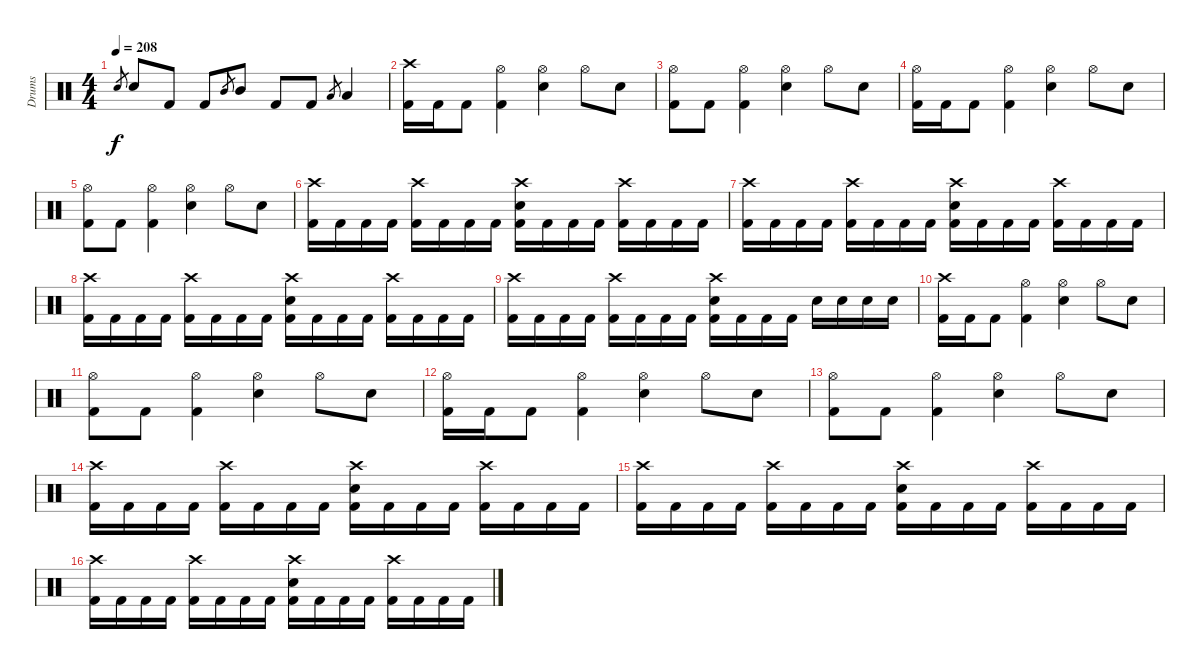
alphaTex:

\track ("Drums" "Drums") {instrument percussion}
\staff {score}
\articulation defaults
\ts (4 4)
\tempo 208
\clef neutral
\ks c "Snare (hit) 2".8{gr dy f} "Snare (hit) 2".8 "Kick (hit) 2".8 "Kick (hit) 2".8 "Mid Tom (hit)".8{gr} "Mid Tom (hit)".8 "Kick (hit) 2".8 "Kick (hit) 2".8 "Low Tom (hit)".8{gr} "Low Tom (hit)".4
|
("Crash high (hit)" "Kick (hit) 2").16 "Kick (hit) 2".16 "Kick (hit) 2".8 ("Hi-Hat (open)" "Kick (hit) 2").4 ("Hi-Hat (open)" "Snare (hit) 2").4 "Hi-Hat (open)".8 "Snare (hit) 2".8 |
("Hi-Hat (open)" "Kick (hit) 2").8 "Kick (hit) 2".8 ("Hi-Hat (open)" "Kick (hit) 2").4 ("Hi-Hat (open)" "Snare (hit) 2").4 "Hi-Hat (open)".8 "Snare (hit) 2".8 |
("Hi-Hat (open)" "Kick (hit) 2").16 "Kick (hit) 2".16 "Kick (hit) 2".8 ("Hi-Hat (open)" "Kick (hit) 2").4 ("Hi-Hat (open)" "Snare (hit) 2").4 "Hi-Hat (open)".8 "Snare (hit) 2".8 |
("Hi-Hat (open)" "Kick (hit) 2").8 "Kick (hit) 2".8 ("Hi-Hat (open)" "Kick (hit) 2").4 ("Hi-Hat (open)" "Snare (hit) 2").4 "Hi-Hat (open)".8 "Snare (hit) 2".8 |
("Crash high (hit)" "Kick (hit) 2").16 "Kick (hit) 2".16 "Kick (hit) 2".16 "Kick (hit) 2".16 ("Crash high (hit)" "Kick (hit) 2").16 "Kick (hit) 2".16 "Kick (hit) 2".16 "Kick (hit) 2".16 ("Crash high (hit)" "Snare (hit) 2" "Kick (hit) 2").16 "Kick (hit) 2".16 "Kick (hit) 2".16 "Kick (hit) 2".16 ("Crash high (hit)" "Kick (hit) 2").16 "Kick (hit) 2".16 "Kick (hit) 2".16 "Kick (hit) 2".16 |
("Crash high (hit)" "Kick (hit) 2").16 "Kick (hit) 2".16 "Kick (hit) 2".16 "Kick (hit) 2".16 ("Crash high (hit)" "Kick (hit) 2").16 "Kick (hit) 2".16 "Kick (hit) 2".16 "Kick (hit) 2".16 ("Crash high (hit)" "Snare (hit) 2" "Kick (hit) 2").16 "Kick (hit) 2".16 "Kick (hit) 2".16 "Kick (hit) 2".16 ("Crash high (hit)" "Kick (hit) 2").16 "Kick (hit) 2".16 "Kick (hit) 2".16 "Kick (hit) 2".16 |
("Crash high (hit)" "Kick (hit) 2").16 "Kick (hit) 2".16 "Kick (hit) 2".16 "Kick (hit) 2".16 ("Crash high (hit)" "Kick (hit) 2").16 "Kick (hit) 2".16 "Kick (hit) 2".16 "Kick (hit) 2".16 ("Crash high (hit)" "Snare (hit) 2" "Kick (hit) 2").16 "Kick (hit) 2".16 "Kick (hit) 2".16 "Kick (hit) 2".16 ("Crash high (hit)" "Kick (hit) 2").16 "Kick (hit) 2".16 "Kick (hit) 2".16 "Kick (hit) 2".16 |
("Crash high (hit)" "Kick (hit) 2").16 "Kick (hit) 2".16 "Kick (hit) 2".16 "Kick (hit) 2".16 ("Crash high (hit)" "Kick (hit) 2").16 "Kick (hit) 2".16 "Kick (hit) 2".16 "Kick (hit) 2".16 ("Crash high (hit)" "Snare (hit) 2" "Kick (hit) 2").16 "Kick (hit) 2".16 "Kick (hit) 2".16 "Kick (hit) 2".16 "Snare (hit) 2".16 "Snare (hit) 2".16 "Snare (hit) 2".16 "Snare (hit) 2".16 |
("Crash high (hit)" "Kick (hit) 2").16 "Kick (hit) 2".16 "Kick (hit) 2".8 ("Hi-Hat (open)" "Kick (hit) 2").4 ("Hi-Hat (open)" "Snare (hit) 2").4 "Hi-Hat (open)".8 "Snare (hit) 2".8 |
("Hi-Hat (open)" "Kick (hit) 2").8 "Kick (hit) 2".8 ("Hi-Hat (open)" "Kick (hit) 2").4 ("Hi-Hat (open)" "Snare (hit) 2").4 "Hi-Hat (open)".8 "Snare (hit) 2".8 |
("Hi-Hat (open)" "Kick (hit) 2").16 "Kick (hit) 2".16 "Kick (hit) 2".8 ("Hi-Hat (open)" "Kick (hit) 2").4 ("Hi-Hat (open)" "Snare (hit) 2").4 "Hi-Hat (open)".8 "Snare (hit) 2".8 |
("Hi-Hat (open)" "Kick (hit) 2").8 "Kick (hit) 2".8 ("Hi-Hat (open)" "Kick (hit) 2").4 ("Hi-Hat (open)" "Snare (hit) 2").4 "Hi-Hat (open)".8 "Snare (hit) 2".8 |
("Crash high (hit)" "Kick (hit) 2").16 "Kick (hit) 2".16 "Kick (hit) 2".16 "Kick (hit) 2".16 ("Crash high (hit)" "Kick (hit) 2").16 "Kick (hit) 2".16 "Kick (hit) 2".16 "Kick (hit) 2".16 ("Crash high (hit)" "Snare (hit) 2" "Kick (hit) 2").16 "Kick (hit) 2".16 "Kick (hit) 2".16 "Kick (hit) 2".16 ("Crash high (hit)" "Kick (hit) 2").16 "Kick (hit) 2".16 "Kick (hit) 2".16 "Kick (hit) 2".16 |
("Crash high (hit)" "Kick (hit) 2").16 "Kick (hit) 2".16 "Kick (hit) 2".16 "Kick (hit) 2".16 ("Crash high (hit)" "Kick (hit) 2").16 "Kick (hit) 2".16 "Kick (hit) 2".16 "Kick (hit) 2".16 ("Crash high (hit)" "Snare (hit) 2" "Kick (hit) 2").16 "Kick (hit) 2".16 "Kick (hit) 2".16 "Kick (hit) 2".16 ("Crash high (hit)" "Kick (hit) 2").16 "Kick (hit) 2".16 "Kick (hit) 2".16 "Kick (hit) 2".16 |
("Crash high (hit)" "Kick (hit) 2").16 "Kick (hit) 2".16 "Kick (hit) 2".16 "Kick (hit) 2".16 ("Crash high (hit)" "Kick (hit) 2").16 "Kick (hit) 2".16 "Kick (hit) 2".16 "Kick (hit) 2".16 ("Crash high (hit)" "Snare (hit) 2" "Kick (hit) 2").16 "Kick (hit) 2".16 "Kick (hit) 2".16 "Kick (hit) 2".16 ("Crash high (hit)" "Kick (hit) 2").16 "Kick (hit) 2".16 "Kick (hit) 2".16 "Kick (hit) 2".16
